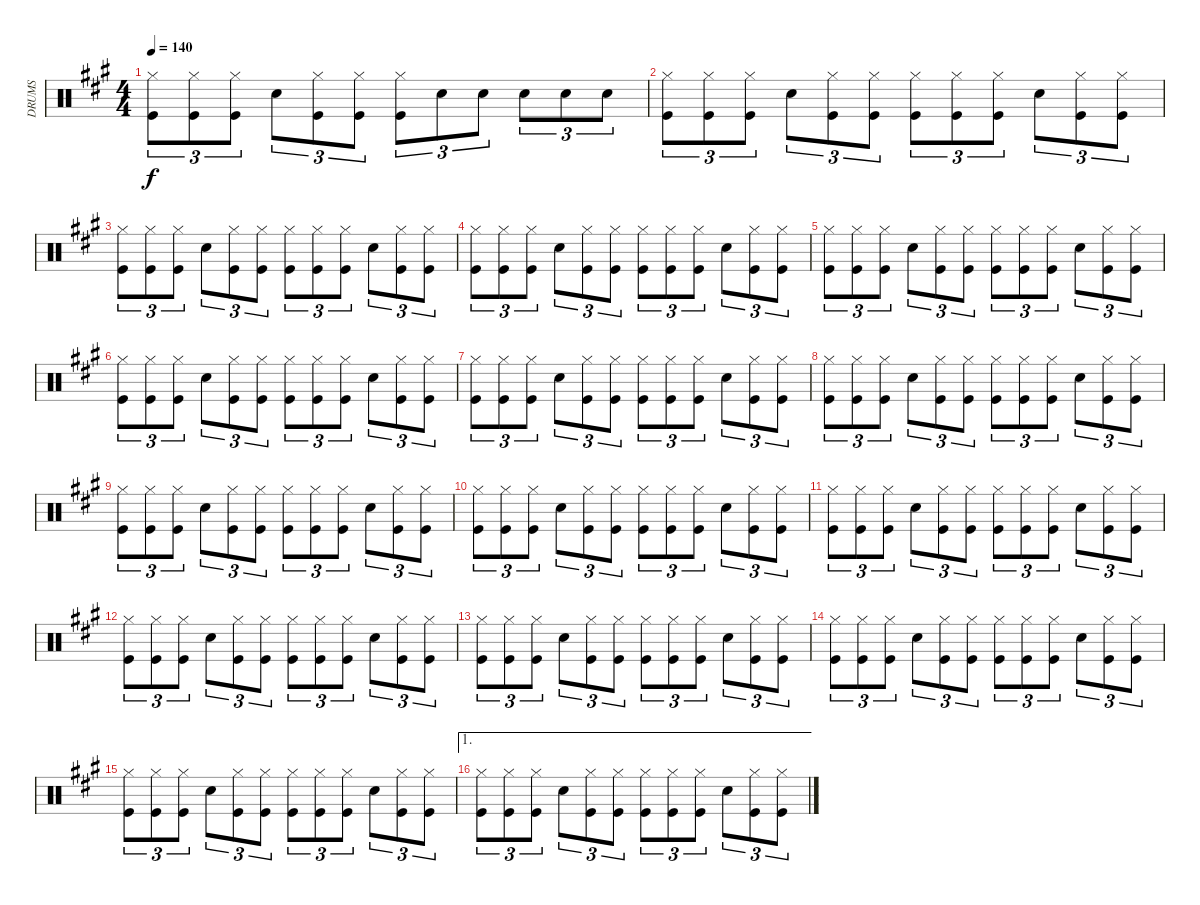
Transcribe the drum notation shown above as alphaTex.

\track ("DRUMS" "DRUMS") {instrument percussion}
\staff {score}
\articulation defaults
\ts (4 4)
\tempo 140
\clef neutral
\ks a
("Hi-Hat (closed)" "Kick (hit)").8{tu (3 2) dy f} ("Hi-Hat (closed)" "Kick (hit)").8{tu (3 2)} ("Hi-Hat (closed)" "Kick (hit)").8{tu (3 2)} "Snare (hit) 2".8{tu (3 2)} ("Hi-Hat (closed)" "Kick (hit)").8{tu (3 2)} ("Hi-Hat (closed)" "Kick (hit)").8{tu (3 2)} ("Hi-Hat (closed)" "Kick (hit)").8{tu (3 2)} "Snare (hit) 2".8{tu (3 2)} "Snare (hit) 2".8{tu (3 2)} "Snare (hit) 2".8{tu (3 2)} "Snare (hit) 2".8{tu (3 2)} "Snare (hit) 2".8{tu (3 2)} |
("Hi-Hat (closed)" "Kick (hit)").8{tu (3 2)} ("Hi-Hat (closed)" "Kick (hit)").8{tu (3 2)} ("Hi-Hat (closed)" "Kick (hit)").8{tu (3 2)} "Snare (hit) 2".8{tu (3 2)} ("Hi-Hat (closed)" "Kick (hit)").8{tu (3 2)} ("Hi-Hat (closed)" "Kick (hit)").8{tu (3 2)} ("Hi-Hat (closed)" "Kick (hit)").8{tu (3 2)} ("Hi-Hat (closed)" "Kick (hit)").8{tu (3 2)} ("Hi-Hat (closed)" "Kick (hit)").8{tu (3 2)} "Snare (hit) 2".8{tu (3 2)} ("Hi-Hat (closed)" "Kick (hit)").8{tu (3 2)} ("Hi-Hat (closed)" "Kick (hit)").8{tu (3 2)} |
("Hi-Hat (closed)" "Kick (hit)").8{tu (3 2)} ("Hi-Hat (closed)" "Kick (hit)").8{tu (3 2)} ("Hi-Hat (closed)" "Kick (hit)").8{tu (3 2)} "Snare (hit) 2".8{tu (3 2)} ("Hi-Hat (closed)" "Kick (hit)").8{tu (3 2)} ("Hi-Hat (closed)" "Kick (hit)").8{tu (3 2)} ("Hi-Hat (closed)" "Kick (hit)").8{tu (3 2)} ("Hi-Hat (closed)" "Kick (hit)").8{tu (3 2)} ("Hi-Hat (closed)" "Kick (hit)").8{tu (3 2)} "Snare (hit) 2".8{tu (3 2)} ("Hi-Hat (closed)" "Kick (hit)").8{tu (3 2)} ("Hi-Hat (closed)" "Kick (hit)").8{tu (3 2)} |
("Hi-Hat (closed)" "Kick (hit)").8{tu (3 2)} ("Hi-Hat (closed)" "Kick (hit)").8{tu (3 2)} ("Hi-Hat (closed)" "Kick (hit)").8{tu (3 2)} "Snare (hit) 2".8{tu (3 2)} ("Hi-Hat (closed)" "Kick (hit)").8{tu (3 2)} ("Hi-Hat (closed)" "Kick (hit)").8{tu (3 2)} ("Hi-Hat (closed)" "Kick (hit)").8{tu (3 2)} ("Hi-Hat (closed)" "Kick (hit)").8{tu (3 2)} ("Hi-Hat (closed)" "Kick (hit)").8{tu (3 2)} "Snare (hit) 2".8{tu (3 2)} ("Hi-Hat (closed)" "Kick (hit)").8{tu (3 2)} ("Hi-Hat (closed)" "Kick (hit)").8{tu (3 2)} |
("Hi-Hat (closed)" "Kick (hit)").8{tu (3 2)} ("Hi-Hat (closed)" "Kick (hit)").8{tu (3 2)} ("Hi-Hat (closed)" "Kick (hit)").8{tu (3 2)} "Snare (hit) 2".8{tu (3 2)} ("Hi-Hat (closed)" "Kick (hit)").8{tu (3 2)} ("Hi-Hat (closed)" "Kick (hit)").8{tu (3 2)} ("Hi-Hat (closed)" "Kick (hit)").8{tu (3 2)} ("Hi-Hat (closed)" "Kick (hit)").8{tu (3 2)} ("Hi-Hat (closed)" "Kick (hit)").8{tu (3 2)} "Snare (hit) 2".8{tu (3 2)} ("Hi-Hat (closed)" "Kick (hit)").8{tu (3 2)} ("Hi-Hat (closed)" "Kick (hit)").8{tu (3 2)} |
("Hi-Hat (closed)" "Kick (hit)").8{tu (3 2)} ("Hi-Hat (closed)" "Kick (hit)").8{tu (3 2)} ("Hi-Hat (closed)" "Kick (hit)").8{tu (3 2)} "Snare (hit) 2".8{tu (3 2)} ("Hi-Hat (closed)" "Kick (hit)").8{tu (3 2)} ("Hi-Hat (closed)" "Kick (hit)").8{tu (3 2)} ("Hi-Hat (closed)" "Kick (hit)").8{tu (3 2)} ("Hi-Hat (closed)" "Kick (hit)").8{tu (3 2)} ("Hi-Hat (closed)" "Kick (hit)").8{tu (3 2)} "Snare (hit) 2".8{tu (3 2)} ("Hi-Hat (closed)" "Kick (hit)").8{tu (3 2)} ("Hi-Hat (closed)" "Kick (hit)").8{tu (3 2)} |
("Hi-Hat (closed)" "Kick (hit)").8{tu (3 2)} ("Hi-Hat (closed)" "Kick (hit)").8{tu (3 2)} ("Hi-Hat (closed)" "Kick (hit)").8{tu (3 2)} "Snare (hit) 2".8{tu (3 2)} ("Hi-Hat (closed)" "Kick (hit)").8{tu (3 2)} ("Hi-Hat (closed)" "Kick (hit)").8{tu (3 2)} ("Hi-Hat (closed)" "Kick (hit)").8{tu (3 2)} ("Hi-Hat (closed)" "Kick (hit)").8{tu (3 2)} ("Hi-Hat (closed)" "Kick (hit)").8{tu (3 2)} "Snare (hit) 2".8{tu (3 2)} ("Hi-Hat (closed)" "Kick (hit)").8{tu (3 2)} ("Hi-Hat (closed)" "Kick (hit)").8{tu (3 2)} |
("Hi-Hat (closed)" "Kick (hit)").8{tu (3 2)} ("Hi-Hat (closed)" "Kick (hit)").8{tu (3 2)} ("Hi-Hat (closed)" "Kick (hit)").8{tu (3 2)} "Snare (hit) 2".8{tu (3 2)} ("Hi-Hat (closed)" "Kick (hit)").8{tu (3 2)} ("Hi-Hat (closed)" "Kick (hit)").8{tu (3 2)} ("Hi-Hat (closed)" "Kick (hit)").8{tu (3 2)} ("Hi-Hat (closed)" "Kick (hit)").8{tu (3 2)} ("Hi-Hat (closed)" "Kick (hit)").8{tu (3 2)} "Snare (hit) 2".8{tu (3 2)} ("Hi-Hat (closed)" "Kick (hit)").8{tu (3 2)} ("Hi-Hat (closed)" "Kick (hit)").8{tu (3 2)} |
("Hi-Hat (closed)" "Kick (hit)").8{tu (3 2)} ("Hi-Hat (closed)" "Kick (hit)").8{tu (3 2)} ("Hi-Hat (closed)" "Kick (hit)").8{tu (3 2)} "Snare (hit) 2".8{tu (3 2)} ("Hi-Hat (closed)" "Kick (hit)").8{tu (3 2)} ("Hi-Hat (closed)" "Kick (hit)").8{tu (3 2)} ("Hi-Hat (closed)" "Kick (hit)").8{tu (3 2)} ("Hi-Hat (closed)" "Kick (hit)").8{tu (3 2)} ("Hi-Hat (closed)" "Kick (hit)").8{tu (3 2)} "Snare (hit) 2".8{tu (3 2)} ("Hi-Hat (closed)" "Kick (hit)").8{tu (3 2)} ("Hi-Hat (closed)" "Kick (hit)").8{tu (3 2)} |
("Hi-Hat (closed)" "Kick (hit)").8{tu (3 2)} ("Hi-Hat (closed)" "Kick (hit)").8{tu (3 2)} ("Hi-Hat (closed)" "Kick (hit)").8{tu (3 2)} "Snare (hit) 2".8{tu (3 2)} ("Hi-Hat (closed)" "Kick (hit)").8{tu (3 2)} ("Hi-Hat (closed)" "Kick (hit)").8{tu (3 2)} ("Hi-Hat (closed)" "Kick (hit)").8{tu (3 2)} ("Hi-Hat (closed)" "Kick (hit)").8{tu (3 2)} ("Hi-Hat (closed)" "Kick (hit)").8{tu (3 2)} "Snare (hit) 2".8{tu (3 2)} ("Hi-Hat (closed)" "Kick (hit)").8{tu (3 2)} ("Hi-Hat (closed)" "Kick (hit)").8{tu (3 2)} |
("Hi-Hat (closed)" "Kick (hit)").8{tu (3 2)} ("Hi-Hat (closed)" "Kick (hit)").8{tu (3 2)} ("Hi-Hat (closed)" "Kick (hit)").8{tu (3 2)} "Snare (hit) 2".8{tu (3 2)} ("Hi-Hat (closed)" "Kick (hit)").8{tu (3 2)} ("Hi-Hat (closed)" "Kick (hit)").8{tu (3 2)} ("Hi-Hat (closed)" "Kick (hit)").8{tu (3 2)} ("Hi-Hat (closed)" "Kick (hit)").8{tu (3 2)} ("Hi-Hat (closed)" "Kick (hit)").8{tu (3 2)} "Snare (hit) 2".8{tu (3 2)} ("Hi-Hat (closed)" "Kick (hit)").8{tu (3 2)} ("Hi-Hat (closed)" "Kick (hit)").8{tu (3 2)} |
("Hi-Hat (closed)" "Kick (hit)").8{tu (3 2)} ("Hi-Hat (closed)" "Kick (hit)").8{tu (3 2)} ("Hi-Hat (closed)" "Kick (hit)").8{tu (3 2)} "Snare (hit) 2".8{tu (3 2)} ("Hi-Hat (closed)" "Kick (hit)").8{tu (3 2)} ("Hi-Hat (closed)" "Kick (hit)").8{tu (3 2)} ("Hi-Hat (closed)" "Kick (hit)").8{tu (3 2)} ("Hi-Hat (closed)" "Kick (hit)").8{tu (3 2)} ("Hi-Hat (closed)" "Kick (hit)").8{tu (3 2)} "Snare (hit) 2".8{tu (3 2)} ("Hi-Hat (closed)" "Kick (hit)").8{tu (3 2)} ("Hi-Hat (closed)" "Kick (hit)").8{tu (3 2)} |
("Hi-Hat (closed)" "Kick (hit)").8{tu (3 2)} ("Hi-Hat (closed)" "Kick (hit)").8{tu (3 2)} ("Hi-Hat (closed)" "Kick (hit)").8{tu (3 2)} "Snare (hit) 2".8{tu (3 2)} ("Hi-Hat (closed)" "Kick (hit)").8{tu (3 2)} ("Hi-Hat (closed)" "Kick (hit)").8{tu (3 2)} ("Hi-Hat (closed)" "Kick (hit)").8{tu (3 2)} ("Hi-Hat (closed)" "Kick (hit)").8{tu (3 2)} ("Hi-Hat (closed)" "Kick (hit)").8{tu (3 2)} "Snare (hit) 2".8{tu (3 2)} ("Hi-Hat (closed)" "Kick (hit)").8{tu (3 2)} ("Hi-Hat (closed)" "Kick (hit)").8{tu (3 2)} |
("Hi-Hat (closed)" "Kick (hit)").8{tu (3 2)} ("Hi-Hat (closed)" "Kick (hit)").8{tu (3 2)} ("Hi-Hat (closed)" "Kick (hit)").8{tu (3 2)} "Snare (hit) 2".8{tu (3 2)} ("Hi-Hat (closed)" "Kick (hit)").8{tu (3 2)} ("Hi-Hat (closed)" "Kick (hit)").8{tu (3 2)} ("Hi-Hat (closed)" "Kick (hit)").8{tu (3 2)} ("Hi-Hat (closed)" "Kick (hit)").8{tu (3 2)} ("Hi-Hat (closed)" "Kick (hit)").8{tu (3 2)} "Snare (hit) 2".8{tu (3 2)} ("Hi-Hat (closed)" "Kick (hit)").8{tu (3 2)} ("Hi-Hat (closed)" "Kick (hit)").8{tu (3 2)} |
("Hi-Hat (closed)" "Kick (hit)").8{tu (3 2)} ("Hi-Hat (closed)" "Kick (hit)").8{tu (3 2)} ("Hi-Hat (closed)" "Kick (hit)").8{tu (3 2)} "Snare (hit) 2".8{tu (3 2)} ("Hi-Hat (closed)" "Kick (hit)").8{tu (3 2)} ("Hi-Hat (closed)" "Kick (hit)").8{tu (3 2)} ("Hi-Hat (closed)" "Kick (hit)").8{tu (3 2)} ("Hi-Hat (closed)" "Kick (hit)").8{tu (3 2)} ("Hi-Hat (closed)" "Kick (hit)").8{tu (3 2)} "Snare (hit) 2".8{tu (3 2)} ("Hi-Hat (closed)" "Kick (hit)").8{tu (3 2)} ("Hi-Hat (closed)" "Kick (hit)").8{tu (3 2)} |
\ae 1
("Hi-Hat (closed)" "Kick (hit)").8{tu (3 2)} ("Hi-Hat (closed)" "Kick (hit)").8{tu (3 2)} ("Hi-Hat (closed)" "Kick (hit)").8{tu (3 2)} "Snare (hit) 2".8{tu (3 2)} ("Hi-Hat (closed)" "Kick (hit)").8{tu (3 2)} ("Hi-Hat (closed)" "Kick (hit)").8{tu (3 2)} ("Hi-Hat (closed)" "Kick (hit)").8{tu (3 2)} ("Hi-Hat (closed)" "Kick (hit)").8{tu (3 2)} ("Hi-Hat (closed)" "Kick (hit)").8{tu (3 2)} "Snare (hit) 2".8{tu (3 2)} ("Hi-Hat (closed)" "Kick (hit)").8{tu (3 2)} ("Hi-Hat (closed)" "Kick (hit)").8{tu (3 2)}
